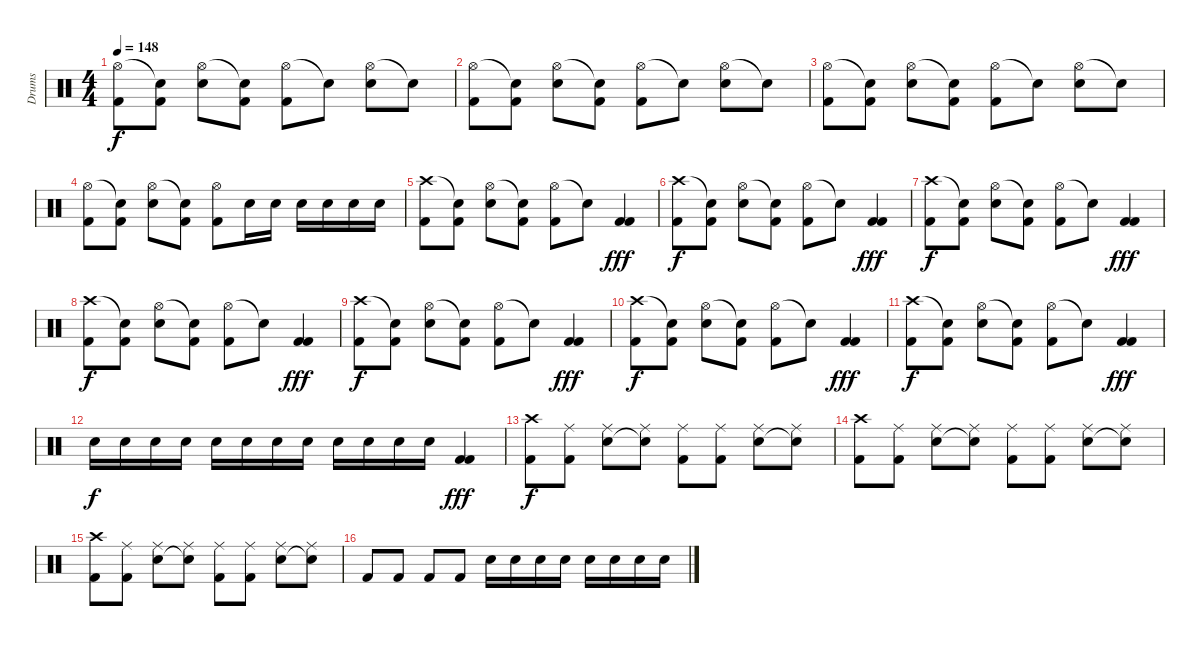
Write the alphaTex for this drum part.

\track ("Drums" "Drums") {instrument percussion}
\staff {score}
\articulation defaults
\ts (4 4)
\tempo 148
\clef neutral
\ks c
("Hi-Hat (open)" "Kick (hit) 2").8{dy f} ("Snare (hit)"{t} "Kick (hit) 2").8 ("Hi-Hat (open)" "Snare (hit) 2").8 ("Snare (hit)"{t} "Kick (hit) 2").8 ("Hi-Hat (open)" "Kick (hit) 2").8 "Snare (hit)"{t}.8 ("Hi-Hat (open)" "Snare (hit) 2").8 "Snare (hit)"{t}.8 |
("Hi-Hat (open)" "Kick (hit) 2").8 ("Snare (hit)"{t} "Kick (hit) 2").8 ("Hi-Hat (open)" "Snare (hit) 2").8 ("Snare (hit)"{t} "Kick (hit) 2").8 ("Hi-Hat (open)" "Kick (hit) 2").8 "Snare (hit)"{t}.8 ("Hi-Hat (open)" "Snare (hit) 2").8 "Snare (hit)"{t}.8 |
("Hi-Hat (open)" "Kick (hit) 2").8 ("Snare (hit)"{t} "Kick (hit) 2").8 ("Hi-Hat (open)" "Snare (hit) 2").8 ("Snare (hit)"{t} "Kick (hit) 2").8 ("Hi-Hat (open)" "Kick (hit) 2").8 "Snare (hit)"{t}.8 ("Hi-Hat (open)" "Snare (hit) 2").8 "Snare (hit)"{t}.8 |
("Hi-Hat (open)" "Kick (hit) 2").8 ("Snare (hit)"{t} "Kick (hit) 2").8 ("Hi-Hat (open)" "Snare (hit) 2").8 ("Snare (hit)"{t} "Kick (hit) 2").8 ("Hi-Hat (open)" "Kick (hit) 2").8 "Snare (hit) 2".16 "Snare (hit) 2".16 "Snare (hit) 2".16 "Snare (hit) 2".16 "Snare (hit) 2".16 "Snare (hit) 2".16 |
("Crash high (hit)" "Kick (hit) 2").8 ("Snare (hit)"{t} "Kick (hit) 2").8 ("Hi-Hat (open)" "Snare (hit) 2").8 ("Snare (hit)"{t} "Kick (hit) 2").8 ("Hi-Hat (open)" "Kick (hit) 2").8 "Snare (hit)"{t}.8 ("Kick (hit) 2" "Kick (hit) 2").4{dy fff} |
("Crash high (hit)" "Kick (hit) 2").8{dy f} ("Snare (hit)"{t} "Kick (hit) 2").8 ("Hi-Hat (open)" "Snare (hit) 2").8 ("Snare (hit)"{t} "Kick (hit) 2").8 ("Hi-Hat (open)" "Kick (hit) 2").8 "Snare (hit)"{t}.8 ("Kick (hit) 2" "Kick (hit) 2").4{dy fff} |
("Crash high (hit)" "Kick (hit) 2").8{dy f} ("Snare (hit)"{t} "Kick (hit) 2").8 ("Hi-Hat (open)" "Snare (hit) 2").8 ("Snare (hit)"{t} "Kick (hit) 2").8 ("Hi-Hat (open)" "Kick (hit) 2").8 "Snare (hit)"{t}.8 ("Kick (hit) 2" "Kick (hit) 2").4{dy fff} |
("Crash high (hit)" "Kick (hit) 2").8{dy f} ("Snare (hit)"{t} "Kick (hit) 2").8 ("Hi-Hat (open)" "Snare (hit) 2").8 ("Snare (hit)"{t} "Kick (hit) 2").8 ("Hi-Hat (open)" "Kick (hit) 2").8 "Snare (hit)"{t}.8 ("Kick (hit) 2" "Kick (hit) 2").4{dy fff} |
("Crash high (hit)" "Kick (hit) 2").8{dy f} ("Snare (hit)"{t} "Kick (hit) 2").8 ("Hi-Hat (open)" "Snare (hit) 2").8 ("Snare (hit)"{t} "Kick (hit) 2").8 ("Hi-Hat (open)" "Kick (hit) 2").8 "Snare (hit)"{t}.8 ("Kick (hit) 2" "Kick (hit) 2").4{dy fff} |
("Crash high (hit)" "Kick (hit) 2").8{dy f} ("Snare (hit)"{t} "Kick (hit) 2").8 ("Hi-Hat (open)" "Snare (hit) 2").8 ("Snare (hit)"{t} "Kick (hit) 2").8 ("Hi-Hat (open)" "Kick (hit) 2").8 "Snare (hit)"{t}.8 ("Kick (hit) 2" "Kick (hit) 2").4{dy fff} |
("Crash high (hit)" "Kick (hit) 2").8{dy f} ("Snare (hit)"{t} "Kick (hit) 2").8 ("Hi-Hat (open)" "Snare (hit) 2").8 ("Snare (hit)"{t} "Kick (hit) 2").8 ("Hi-Hat (open)" "Kick (hit) 2").8 "Snare (hit)"{t}.8 ("Kick (hit) 2" "Kick (hit) 2").4{dy fff} |
"Snare (hit) 2".16{dy f} "Snare (hit) 2".16 "Snare (hit) 2".16 "Snare (hit) 2".16 "Snare (hit) 2".16 "Snare (hit) 2".16 "Snare (hit) 2".16 "Snare (hit) 2".16 "Snare (hit) 2".16 "Snare (hit) 2".16 "Snare (hit) 2".16 "Snare (hit) 2".16 ("Kick (hit) 2" "Kick (hit) 2").4{dy fff} |
("Crash high (hit)" "Kick (hit) 2").8{dy f} ("Ride (middle)" "Kick (hit) 2").8 ("Ride (middle)" "Snare (hit) 2").8 ("Ride (middle)" "Snare (hit)"{t}).8 ("Ride (middle)" "Kick (hit) 2").8 ("Ride (middle)" "Kick (hit) 2").8 ("Ride (middle)" "Snare (hit) 2").8 ("Ride (middle)" "Snare (hit)"{t}).8 |
("Crash high (hit)" "Kick (hit) 2").8 ("Ride (middle)" "Kick (hit) 2").8 ("Ride (middle)" "Snare (hit) 2").8 ("Ride (middle)" "Snare (hit)"{t}).8 ("Ride (middle)" "Kick (hit) 2").8 ("Ride (middle)" "Kick (hit) 2").8 ("Ride (middle)" "Snare (hit) 2").8 ("Ride (middle)" "Snare (hit)"{t}).8 |
("Crash high (hit)" "Kick (hit) 2").8 ("Ride (middle)" "Kick (hit) 2").8 ("Ride (middle)" "Snare (hit) 2").8 ("Ride (middle)" "Snare (hit)"{t}).8 ("Ride (middle)" "Kick (hit) 2").8 ("Ride (middle)" "Kick (hit) 2").8 ("Ride (middle)" "Snare (hit) 2").8 ("Ride (middle)" "Snare (hit)"{t}).8 |
"Kick (hit) 2".8 "Kick (hit) 2".8 "Kick (hit) 2".8 "Kick (hit) 2".8 "Snare (hit) 2".16 "Snare (hit) 2".16 "Snare (hit) 2".16 "Snare (hit) 2".16 "Snare (hit) 2".16 "Snare (hit) 2".16 "Snare (hit) 2".16 "Snare (hit) 2".16
